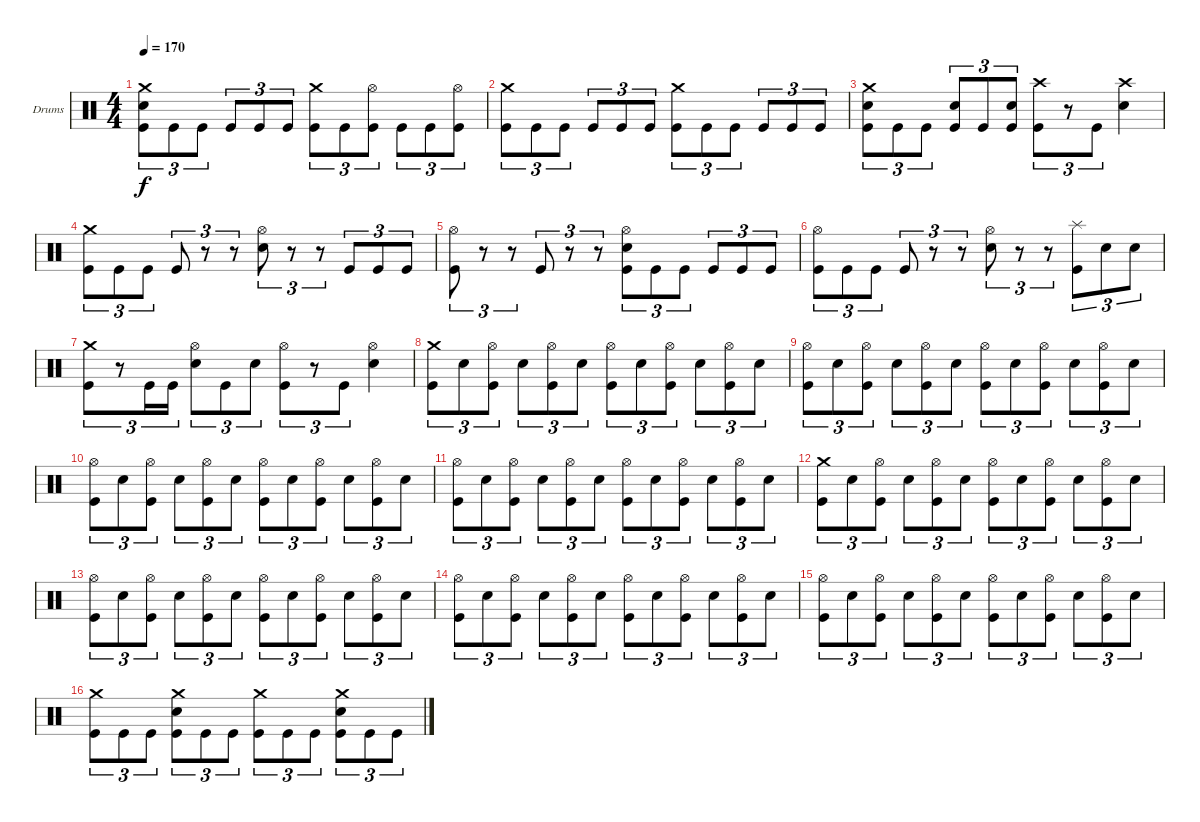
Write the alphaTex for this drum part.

\bracketExtendMode groupsimilarinstruments
\firstSystemTrackNameOrientation horizontal
\otherSystemsTrackNameOrientation horizontal
\track ("Drumkit" "Drums") {instrument percussion}
\staff {score}
\articulation defaults
\ts (4 4)
\tempo 170
\clef neutral
\ks c
("Crash medium (hit)" "Snare (hit) 2" "Kick (hit)").8{tu (3 2) dy f} "Kick (hit)".8{tu (3 2)} "Kick (hit)".8{tu (3 2)} "Kick (hit)".8{tu (3 2)} "Kick (hit)".8{tu (3 2)} "Kick (hit)".8{tu (3 2)} ("Crash medium (hit)" "Kick (hit)").8{tu (3 2)} "Kick (hit)".8{tu (3 2)} ("Hi-Hat (open)" "Kick (hit)").8{tu (3 2)} "Kick (hit)".8{tu (3 2)} "Kick (hit)".8{tu (3 2)} ("Hi-Hat (open)" "Kick (hit)").8{tu (3 2)} |
("Crash medium (hit)" "Kick (hit)").8{tu (3 2)} "Kick (hit)".8{tu (3 2)} "Kick (hit)".8{tu (3 2)} "Kick (hit)".8{tu (3 2)} "Kick (hit)".8{tu (3 2)} "Kick (hit)".8{tu (3 2)} ("Crash medium (hit)" "Kick (hit)").8{tu (3 2)} "Kick (hit)".8{tu (3 2)} "Kick (hit)".8{tu (3 2)} "Kick (hit)".8{tu (3 2)} "Kick (hit)".8{tu (3 2)} "Kick (hit)".8{tu (3 2)} |
("Crash medium (hit)" "Snare (hit) 2" "Kick (hit)").8{tu (3 2)} "Kick (hit)".8{tu (3 2)} "Kick (hit)".8{tu (3 2)} ("Snare (hit) 2" "Kick (hit)").8{tu (3 2)} "Kick (hit)".8{tu (3 2)} ("Snare (hit) 2" "Kick (hit)").8{tu (3 2)} ("Crash high (hit)" "Kick (hit)").8{tu (3 2)} r.8{tu (3 2)} "Kick (hit)".8{tu (3 2)} ("Crash high (hit)" "Snare (hit) 2").4 |
("Crash medium (hit)" "Kick (hit)").8{tu (3 2)} "Kick (hit)".8{tu (3 2)} "Kick (hit)".8{tu (3 2)} "Kick (hit)".8{tu (3 2)} r.8{tu (3 2)} r.8{tu (3 2)} ("Hi-Hat (open)" "Snare (hit) 2").8{tu (3 2)} r.8{tu (3 2)} r.8{tu (3 2)} "Kick (hit)".8{tu (3 2)} "Kick (hit)".8{tu (3 2)} "Kick (hit)".8{tu (3 2)} |
("Hi-Hat (open)" "Kick (hit)").8{tu (3 2)} r.8{tu (3 2)} r.8{tu (3 2)} "Kick (hit)".8{tu (3 2)} r.8{tu (3 2)} r.8{tu (3 2)} ("Hi-Hat (open)" "Snare (hit) 2" "Kick (hit)").8{tu (3 2)} "Kick (hit)".8{tu (3 2)} "Kick (hit)".8{tu (3 2)} "Kick (hit)".8{tu (3 2)} "Kick (hit)".8{tu (3 2)} "Kick (hit)".8{tu (3 2)} |
("Hi-Hat (open)" "Kick (hit)").8{tu (3 2)} "Kick (hit)".8{tu (3 2)} "Kick (hit)".8{tu (3 2)} "Kick (hit)".8{tu (3 2)} r.8{tu (3 2)} r.8{tu (3 2)} ("Hi-Hat (open)" "Snare (hit) 2").8{tu (3 2)} r.8{tu (3 2)} r.8{tu (3 2)} ("Splash (hit)" "Kick (hit)").8{tu (3 2)} "Snare (hit) 2".8{tu (3 2)} "Snare (hit) 2".8{tu (3 2)} |
("Crash medium (hit)" "Kick (hit)").8{tu (3 2)} r.8{tu (3 2)} "Kick (hit)".16{tu (3 2)} "Kick (hit)".16{tu (3 2)} ("Hi-Hat (open)" "Snare (hit) 2").8{tu (3 2)} "Kick (hit)".8{tu (3 2)} "Snare (hit) 2".8{tu (3 2)} ("Hi-Hat (open)" "Kick (hit)").8{tu (3 2)} r.8{tu (3 2)} "Kick (hit)".8{tu (3 2)} ("Hi-Hat (open)" "Snare (hit) 2").4 |
("Crash medium (hit)" "Kick (hit)").8{tu (3 2)} "Snare (hit) 2".8{tu (3 2)} ("Hi-Hat (open)" "Kick (hit)").8{tu (3 2)} "Snare (hit) 2".8{tu (3 2)} ("Hi-Hat (open)" "Kick (hit)").8{tu (3 2)} "Snare (hit) 2".8{tu (3 2)} ("Hi-Hat (open)" "Kick (hit)").8{tu (3 2)} "Snare (hit) 2".8{tu (3 2)} ("Hi-Hat (open)" "Kick (hit)").8{tu (3 2)} "Snare (hit) 2".8{tu (3 2)} ("Hi-Hat (open)" "Kick (hit)").8{tu (3 2)} "Snare (hit) 2".8{tu (3 2)} |
("Hi-Hat (open)" "Kick (hit)").8{tu (3 2)} "Snare (hit) 2".8{tu (3 2)} ("Hi-Hat (open)" "Kick (hit)").8{tu (3 2)} "Snare (hit) 2".8{tu (3 2)} ("Hi-Hat (open)" "Kick (hit)").8{tu (3 2)} "Snare (hit) 2".8{tu (3 2)} ("Hi-Hat (open)" "Kick (hit)").8{tu (3 2)} "Snare (hit) 2".8{tu (3 2)} ("Hi-Hat (open)" "Kick (hit)").8{tu (3 2)} "Snare (hit) 2".8{tu (3 2)} ("Hi-Hat (open)" "Kick (hit)").8{tu (3 2)} "Snare (hit) 2".8{tu (3 2)} |
("Hi-Hat (open)" "Kick (hit)").8{tu (3 2)} "Snare (hit) 2".8{tu (3 2)} ("Hi-Hat (open)" "Kick (hit)").8{tu (3 2)} "Snare (hit) 2".8{tu (3 2)} ("Hi-Hat (open)" "Kick (hit)").8{tu (3 2)} "Snare (hit) 2".8{tu (3 2)} ("Hi-Hat (open)" "Kick (hit)").8{tu (3 2)} "Snare (hit) 2".8{tu (3 2)} ("Hi-Hat (open)" "Kick (hit)").8{tu (3 2)} "Snare (hit) 2".8{tu (3 2)} ("Hi-Hat (open)" "Kick (hit)").8{tu (3 2)} "Snare (hit) 2".8{tu (3 2)} |
("Hi-Hat (open)" "Kick (hit)").8{tu (3 2)} "Snare (hit) 2".8{tu (3 2)} ("Hi-Hat (open)" "Kick (hit)").8{tu (3 2)} "Snare (hit) 2".8{tu (3 2)} ("Hi-Hat (open)" "Kick (hit)").8{tu (3 2)} "Snare (hit) 2".8{tu (3 2)} ("Hi-Hat (open)" "Kick (hit)").8{tu (3 2)} "Snare (hit) 2".8{tu (3 2)} ("Hi-Hat (open)" "Kick (hit)").8{tu (3 2)} "Snare (hit) 2".8{tu (3 2)} ("Hi-Hat (open)" "Kick (hit)").8{tu (3 2)} "Snare (hit) 2".8{tu (3 2)} |
("Crash medium (hit)" "Kick (hit)").8{tu (3 2)} "Snare (hit) 2".8{tu (3 2)} ("Hi-Hat (open)" "Kick (hit)").8{tu (3 2)} "Snare (hit) 2".8{tu (3 2)} ("Hi-Hat (open)" "Kick (hit)").8{tu (3 2)} "Snare (hit) 2".8{tu (3 2)} ("Hi-Hat (open)" "Kick (hit)").8{tu (3 2)} "Snare (hit) 2".8{tu (3 2)} ("Hi-Hat (open)" "Kick (hit)").8{tu (3 2)} "Snare (hit) 2".8{tu (3 2)} ("Hi-Hat (open)" "Kick (hit)").8{tu (3 2)} "Snare (hit) 2".8{tu (3 2)} |
("Hi-Hat (open)" "Kick (hit)").8{tu (3 2)} "Snare (hit) 2".8{tu (3 2)} ("Hi-Hat (open)" "Kick (hit)").8{tu (3 2)} "Snare (hit) 2".8{tu (3 2)} ("Hi-Hat (open)" "Kick (hit)").8{tu (3 2)} "Snare (hit) 2".8{tu (3 2)} ("Hi-Hat (open)" "Kick (hit)").8{tu (3 2)} "Snare (hit) 2".8{tu (3 2)} ("Hi-Hat (open)" "Kick (hit)").8{tu (3 2)} "Snare (hit) 2".8{tu (3 2)} ("Hi-Hat (open)" "Kick (hit)").8{tu (3 2)} "Snare (hit) 2".8{tu (3 2)} |
("Hi-Hat (open)" "Kick (hit)").8{tu (3 2)} "Snare (hit) 2".8{tu (3 2)} ("Hi-Hat (open)" "Kick (hit)").8{tu (3 2)} "Snare (hit) 2".8{tu (3 2)} ("Hi-Hat (open)" "Kick (hit)").8{tu (3 2)} "Snare (hit) 2".8{tu (3 2)} ("Hi-Hat (open)" "Kick (hit)").8{tu (3 2)} "Snare (hit) 2".8{tu (3 2)} ("Hi-Hat (open)" "Kick (hit)").8{tu (3 2)} "Snare (hit) 2".8{tu (3 2)} ("Hi-Hat (open)" "Kick (hit)").8{tu (3 2)} "Snare (hit) 2".8{tu (3 2)} |
("Hi-Hat (open)" "Kick (hit)").8{tu (3 2)} "Snare (hit) 2".8{tu (3 2)} ("Hi-Hat (open)" "Kick (hit)").8{tu (3 2)} "Snare (hit) 2".8{tu (3 2)} ("Hi-Hat (open)" "Kick (hit)").8{tu (3 2)} "Snare (hit) 2".8{tu (3 2)} ("Hi-Hat (open)" "Kick (hit)").8{tu (3 2)} "Snare (hit) 2".8{tu (3 2)} ("Hi-Hat (open)" "Kick (hit)").8{tu (3 2)} "Snare (hit) 2".8{tu (3 2)} ("Hi-Hat (open)" "Kick (hit)").8{tu (3 2)} "Snare (hit) 2".8{tu (3 2)} |
("Crash medium (hit)" "Kick (hit)").8{tu (3 2)} "Kick (hit)".8{tu (3 2)} "Kick (hit)".8{tu (3 2)} ("Crash medium (hit)" "Snare (hit) 2" "Kick (hit)").8{tu (3 2)} "Kick (hit)".8{tu (3 2)} "Kick (hit)".8{tu (3 2)} ("Crash medium (hit)" "Kick (hit)").8{tu (3 2)} "Kick (hit)".8{tu (3 2)} "Kick (hit)".8{tu (3 2)} ("Crash medium (hit)" "Snare (hit) 2" "Kick (hit)").8{tu (3 2)} "Kick (hit)".8{tu (3 2)} "Kick (hit)".8{tu (3 2)}
